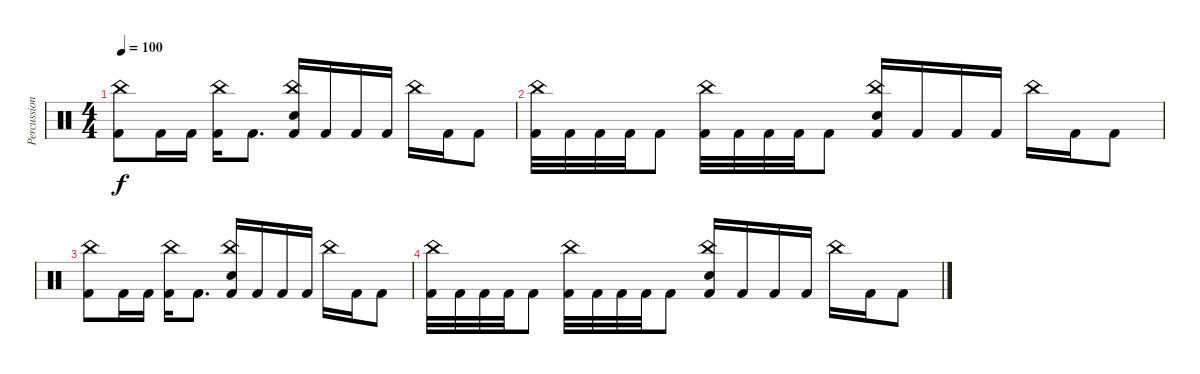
\track ("Percussion" "Percussion") {instrument percussion}
\staff {score}
\articulation defaults
\ts (4 4)
\tempo 100
\clef neutral
\ks c
("Kick (hit) 2" "China (hit)").8{dy f} "Kick (hit) 2".16 "Kick (hit) 2".16 ("Kick (hit) 2" "China (hit)").16 "Kick (hit) 2".8{d} ("Kick (hit) 2" "China (hit)" "Electric Snare (hit)").16 "Kick (hit) 2".16 "Kick (hit) 2".16 "Kick (hit) 2".16 "China (hit)".16 "Kick (hit) 2".16 "Kick (hit) 2".8 |
("Kick (hit) 2" "China (hit)").32 "Kick (hit) 2".32 "Kick (hit) 2".32 "Kick (hit) 2".32 "Kick (hit) 2".8 ("Kick (hit) 2" "China (hit)").32 "Kick (hit) 2".32 "Kick (hit) 2".32 "Kick (hit) 2".32 "Kick (hit) 2".8 ("Kick (hit) 2" "China (hit)" "Electric Snare (hit)").16 "Kick (hit) 2".16 "Kick (hit) 2".16 "Kick (hit) 2".16 "China (hit)".16 "Kick (hit) 2".16 "Kick (hit) 2".8 |
("Kick (hit) 2" "China (hit)").8 "Kick (hit) 2".16 "Kick (hit) 2".16 ("Kick (hit) 2" "China (hit)").16 "Kick (hit) 2".8{d} ("Kick (hit) 2" "China (hit)" "Electric Snare (hit)").16 "Kick (hit) 2".16 "Kick (hit) 2".16 "Kick (hit) 2".16 "China (hit)".16 "Kick (hit) 2".16 "Kick (hit) 2".8 |
("Kick (hit) 2" "China (hit)").32 "Kick (hit) 2".32 "Kick (hit) 2".32 "Kick (hit) 2".32 "Kick (hit) 2".8 ("Kick (hit) 2" "China (hit)").32 "Kick (hit) 2".32 "Kick (hit) 2".32 "Kick (hit) 2".32 "Kick (hit) 2".8 ("Kick (hit) 2" "China (hit)" "Electric Snare (hit)").16 "Kick (hit) 2".16 "Kick (hit) 2".16 "Kick (hit) 2".16 "China (hit)".16 "Kick (hit) 2".16 "Kick (hit) 2".8
